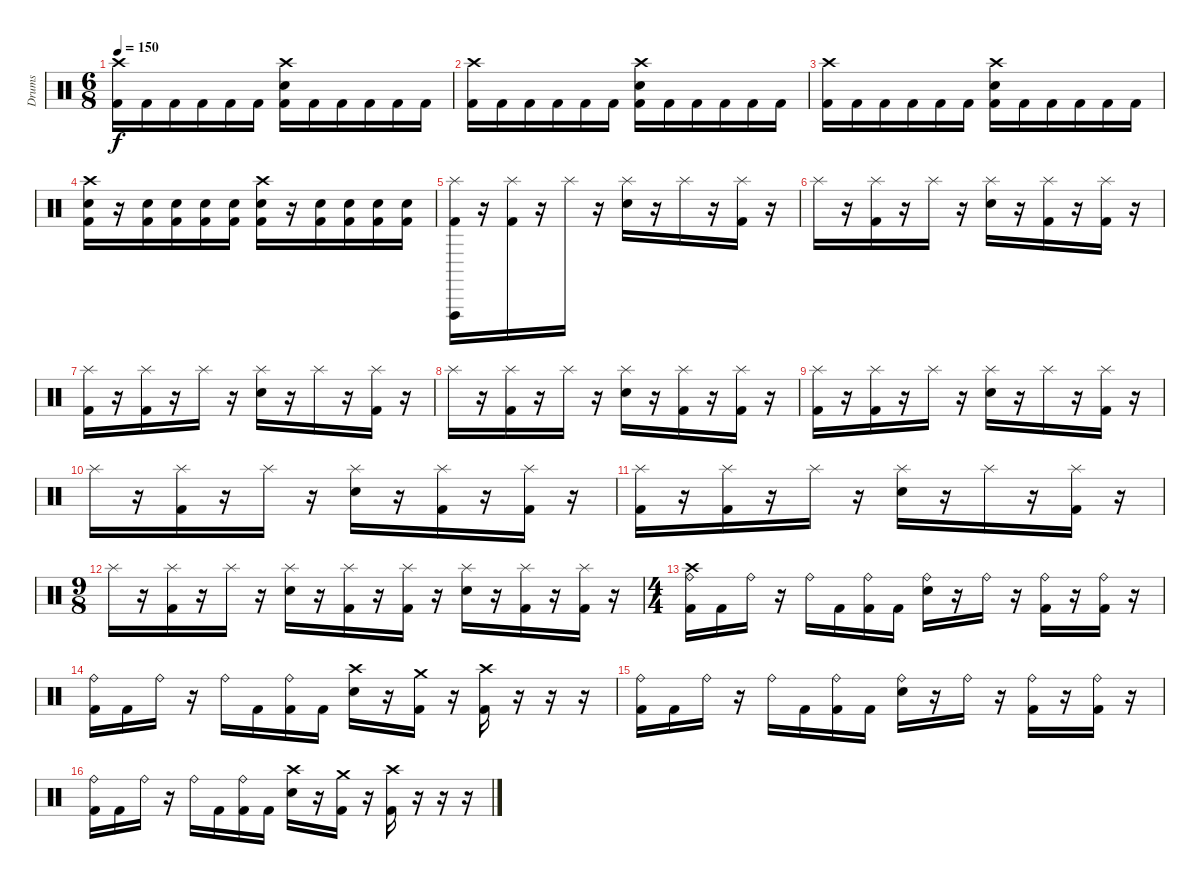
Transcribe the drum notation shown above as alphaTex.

\track ("Drums" "Drums") {instrument percussion}
\staff {score}
\articulation defaults
\ts (6 8)
\tempo 150
\clef neutral
\ks c
("Crash high (hit)" "Kick (hit) 2").16{dy f} "Kick (hit) 2".16 "Kick (hit) 2".16 "Kick (hit) 2".16 "Kick (hit) 2".16 "Kick (hit) 2".16 ("Crash high (hit)" "Electric Snare (hit)" "Kick (hit) 2").16 "Kick (hit) 2".16 "Kick (hit) 2".16 "Kick (hit) 2".16 "Kick (hit) 2".16 "Kick (hit) 2".16 |
("Crash high (hit)" "Kick (hit) 2").16 "Kick (hit) 2".16 "Kick (hit) 2".16 "Kick (hit) 2".16 "Kick (hit) 2".16 "Kick (hit) 2".16 ("Crash high (hit)" "Electric Snare (hit)" "Kick (hit) 2").16 "Kick (hit) 2".16 "Kick (hit) 2".16 "Kick (hit) 2".16 "Kick (hit) 2".16 "Kick (hit) 2".16 |
("Crash high (hit)" "Kick (hit) 2").16 "Kick (hit) 2".16 "Kick (hit) 2".16 "Kick (hit) 2".16 "Kick (hit) 2".16 "Kick (hit) 2".16 ("Crash high (hit)" "Electric Snare (hit)" "Kick (hit) 2").16 "Kick (hit) 2".16 "Kick (hit) 2".16 "Kick (hit) 2".16 "Kick (hit) 2".16 "Kick (hit) 2".16 |
("Crash high (hit)" "Electric Snare (hit)" "Kick (hit) 2").16 r.16 ("Electric Snare (hit)" "Kick (hit) 2").16 ("Electric Snare (hit)" "Kick (hit) 2").16 ("Electric Snare (hit)" "Kick (hit) 2").16 ("Electric Snare (hit)" "Kick (hit) 2").16 ("Crash high (hit)" "Electric Snare (hit)" "Kick (hit) 2").16 r.16 ("Electric Snare (hit)" "Kick (hit) 2").16 ("Electric Snare (hit)" "Kick (hit) 2").16 ("Electric Snare (hit)" "Kick (hit) 2").16 ("Electric Snare (hit)" "Kick (hit) 2").16 |
("Vibraslap (hit)" "Splash (hit)" "Kick (hit) 2").16 r.16 ("Splash (hit)" "Kick (hit) 2").16 r.16 "Splash (hit)".16 r.16 ("Splash (hit)" "Electric Snare (hit)").16 r.16 "Splash (hit)".16 r.16 ("Splash (hit)" "Kick (hit) 2").16 r.16 |
"Splash (hit)".16 r.16 ("Splash (hit)" "Kick (hit) 2").16 r.16 "Splash (hit)".16 r.16 ("Splash (hit)" "Electric Snare (hit)").16 r.16 ("Splash (hit)" "Kick (hit) 2").16 r.16 ("Splash (hit)" "Kick (hit) 2").16 r.16 |
("Splash (hit)" "Kick (hit) 2").16 r.16 ("Splash (hit)" "Kick (hit) 2").16 r.16 "Splash (hit)".16 r.16 ("Splash (hit)" "Electric Snare (hit)").16 r.16 "Splash (hit)".16 r.16 ("Splash (hit)" "Kick (hit) 2").16 r.16 |
"Splash (hit)".16 r.16 ("Splash (hit)" "Kick (hit) 2").16 r.16 "Splash (hit)".16 r.16 ("Splash (hit)" "Electric Snare (hit)").16 r.16 ("Splash (hit)" "Kick (hit) 2").16 r.16 ("Splash (hit)" "Kick (hit) 2").16 r.16 |
("Splash (hit)" "Kick (hit) 2").16 r.16 ("Splash (hit)" "Kick (hit) 2").16 r.16 "Splash (hit)".16 r.16 ("Splash (hit)" "Electric Snare (hit)").16 r.16 "Splash (hit)".16 r.16 ("Splash (hit)" "Kick (hit) 2").16 r.16 |
"Splash (hit)".16 r.16 ("Splash (hit)" "Kick (hit) 2").16 r.16 "Splash (hit)".16 r.16 ("Splash (hit)" "Electric Snare (hit)").16 r.16 ("Splash (hit)" "Kick (hit) 2").16 r.16 ("Splash (hit)" "Kick (hit) 2").16 r.16 |
("Splash (hit)" "Kick (hit) 2").16 r.16 ("Splash (hit)" "Kick (hit) 2").16 r.16 "Splash (hit)".16 r.16 ("Splash (hit)" "Electric Snare (hit)").16 r.16 "Splash (hit)".16 r.16 ("Splash (hit)" "Kick (hit) 2").16 r.16 |
\ts (9 8)
"Splash (hit)".16 r.16 ("Splash (hit)" "Kick (hit) 2").16 r.16 "Splash (hit)".16 r.16 ("Splash (hit)" "Electric Snare (hit)").16 r.16 ("Splash (hit)" "Kick (hit) 2").16 r.16 ("Splash (hit)" "Kick (hit) 2").16 r.16 ("Splash (hit)" "Electric Snare (hit)").16 r.16 ("Splash (hit)" "Kick (hit) 2").16 r.16 ("Kick (hit) 2" "Splash (hit)").16 r.16 |
\ts (4 4)
("Crash high (hit)" "Ride (bell)" "Kick (hit) 2").16 "Kick (hit) 2".16 "Ride (bell)".16 r.16 "Ride (bell)".16 "Kick (hit) 2".16 ("Ride (bell)" "Kick (hit) 2").16 "Kick (hit) 2".16 ("Ride (bell)" "Electric Snare (hit)").16 r.16 "Ride (bell)".16 r.16 ("Ride (bell)" "Kick (hit) 2").16 r.16 ("Ride (bell)" "Kick (hit) 2").16 r.16 |
("Ride (bell)" "Kick (hit) 2").16 "Kick (hit) 2".16 "Ride (bell)".16 r.16 "Ride (bell)".16 "Kick (hit) 2".16 ("Ride (bell)" "Kick (hit) 2").16 "Kick (hit) 2".16 ("Crash high (hit)" "Electric Snare (hit)").16 r.16 ("Crash medium (hit)" "Kick (hit) 2").16 r.16 ("Crash high (hit)" "Kick (hit) 2").16 r.16 r.16 r.16 |
("Ride (bell)" "Kick (hit) 2").16 "Kick (hit) 2".16 "Ride (bell)".16 r.16 "Ride (bell)".16 "Kick (hit) 2".16 ("Ride (bell)" "Kick (hit) 2").16 "Kick (hit) 2".16 ("Ride (bell)" "Electric Snare (hit)").16 r.16 "Ride (bell)".16 r.16 ("Ride (bell)" "Kick (hit) 2").16 r.16 ("Ride (bell)" "Kick (hit) 2").16 r.16 |
("Ride (bell)" "Kick (hit) 2").16 "Kick (hit) 2".16 "Ride (bell)".16 r.16 "Ride (bell)".16 "Kick (hit) 2".16 ("Ride (bell)" "Kick (hit) 2").16 "Kick (hit) 2".16 ("Crash high (hit)" "Electric Snare (hit)").16 r.16 ("Crash medium (hit)" "Kick (hit) 2").16 r.16 ("Crash high (hit)" "Kick (hit) 2").16 r.16 r.16 r.16
